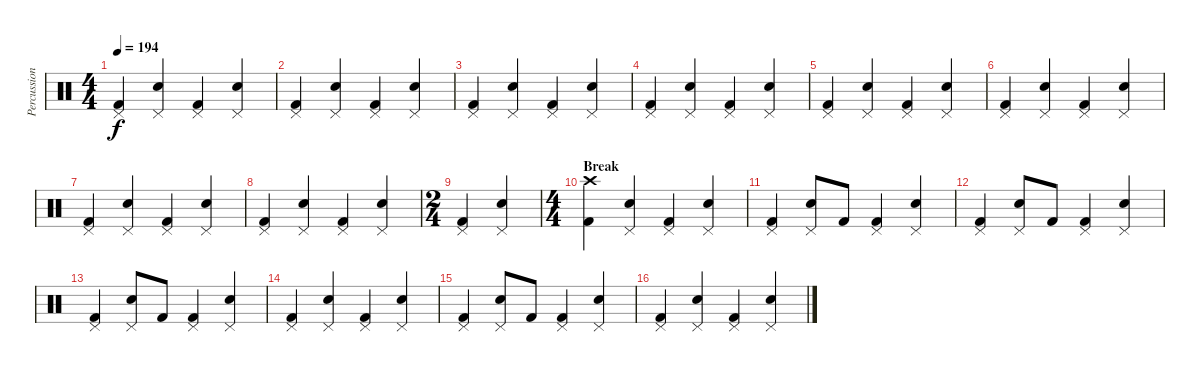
\track ("Percussions" "Percussion") {instrument percussion}
\staff {score}
\articulation defaults
\ts (4 4)
\tempo 194
\clef neutral
\ks c
("Pedal Hi-Hat (hit)" "Kick (hit) 2").4{dy f} ("Pedal Hi-Hat (hit)" "Snare (hit) 2").4 ("Pedal Hi-Hat (hit)" "Kick (hit) 2").4 ("Pedal Hi-Hat (hit)" "Snare (hit) 2").4 |
("Pedal Hi-Hat (hit)" "Kick (hit) 2").4 ("Pedal Hi-Hat (hit)" "Snare (hit) 2").4 ("Pedal Hi-Hat (hit)" "Kick (hit) 2").4 ("Pedal Hi-Hat (hit)" "Snare (hit) 2").4 |
("Pedal Hi-Hat (hit)" "Kick (hit) 2").4 ("Pedal Hi-Hat (hit)" "Snare (hit) 2").4 ("Pedal Hi-Hat (hit)" "Kick (hit) 2").4 ("Pedal Hi-Hat (hit)" "Snare (hit) 2").4 |
("Pedal Hi-Hat (hit)" "Kick (hit) 2").4 ("Pedal Hi-Hat (hit)" "Snare (hit) 2").4 ("Pedal Hi-Hat (hit)" "Kick (hit) 2").4 ("Pedal Hi-Hat (hit)" "Snare (hit) 2").4 |
("Pedal Hi-Hat (hit)" "Kick (hit) 2").4 ("Pedal Hi-Hat (hit)" "Snare (hit) 2").4 ("Pedal Hi-Hat (hit)" "Kick (hit) 2").4 ("Pedal Hi-Hat (hit)" "Snare (hit) 2").4 |
("Pedal Hi-Hat (hit)" "Kick (hit) 2").4 ("Pedal Hi-Hat (hit)" "Snare (hit) 2").4 ("Pedal Hi-Hat (hit)" "Kick (hit) 2").4 ("Pedal Hi-Hat (hit)" "Snare (hit) 2").4 |
("Pedal Hi-Hat (hit)" "Kick (hit) 2").4 ("Pedal Hi-Hat (hit)" "Snare (hit) 2").4 ("Pedal Hi-Hat (hit)" "Kick (hit) 2").4 ("Pedal Hi-Hat (hit)" "Snare (hit) 2").4 |
("Pedal Hi-Hat (hit)" "Kick (hit) 2").4 ("Pedal Hi-Hat (hit)" "Snare (hit) 2").4 ("Pedal Hi-Hat (hit)" "Kick (hit) 2").4 ("Pedal Hi-Hat (hit)" "Snare (hit) 2").4 |
\ts (2 4)
("Pedal Hi-Hat (hit)" "Kick (hit) 2").4 ("Pedal Hi-Hat (hit)" "Snare (hit) 2").4 |
\ts (4 4)
\section ("" "Break")
("Crash high (hit)" "Kick (hit) 2").4 ("Pedal Hi-Hat (hit)" "Snare (hit) 2").4 ("Pedal Hi-Hat (hit)" "Kick (hit) 2").4 ("Pedal Hi-Hat (hit)" "Snare (hit) 2").4 |
("Pedal Hi-Hat (hit)" "Kick (hit) 2").4 ("Pedal Hi-Hat (hit)" "Snare (hit) 2").8 "Kick (hit) 2".8 ("Pedal Hi-Hat (hit)" "Kick (hit) 2").4 ("Pedal Hi-Hat (hit)" "Snare (hit) 2").4 |
("Pedal Hi-Hat (hit)" "Kick (hit) 2").4 ("Pedal Hi-Hat (hit)" "Snare (hit) 2").8 "Kick (hit) 2".8 ("Pedal Hi-Hat (hit)" "Kick (hit) 2").4 ("Pedal Hi-Hat (hit)" "Snare (hit) 2").4 |
("Pedal Hi-Hat (hit)" "Kick (hit) 2").4 ("Pedal Hi-Hat (hit)" "Snare (hit) 2").8 "Kick (hit) 2".8 ("Pedal Hi-Hat (hit)" "Kick (hit) 2").4 ("Pedal Hi-Hat (hit)" "Snare (hit) 2").4 |
("Pedal Hi-Hat (hit)" "Kick (hit) 2").4 ("Pedal Hi-Hat (hit)" "Snare (hit) 2").4 ("Pedal Hi-Hat (hit)" "Kick (hit) 2").4 ("Pedal Hi-Hat (hit)" "Snare (hit) 2").4 |
("Pedal Hi-Hat (hit)" "Kick (hit) 2").4 ("Pedal Hi-Hat (hit)" "Snare (hit) 2").8 "Kick (hit) 2".8 ("Pedal Hi-Hat (hit)" "Kick (hit) 2").4 ("Pedal Hi-Hat (hit)" "Snare (hit) 2").4 |
("Pedal Hi-Hat (hit)" "Kick (hit) 2").4 ("Pedal Hi-Hat (hit)" "Snare (hit) 2").4 ("Pedal Hi-Hat (hit)" "Kick (hit) 2").4 ("Pedal Hi-Hat (hit)" "Snare (hit) 2").4
